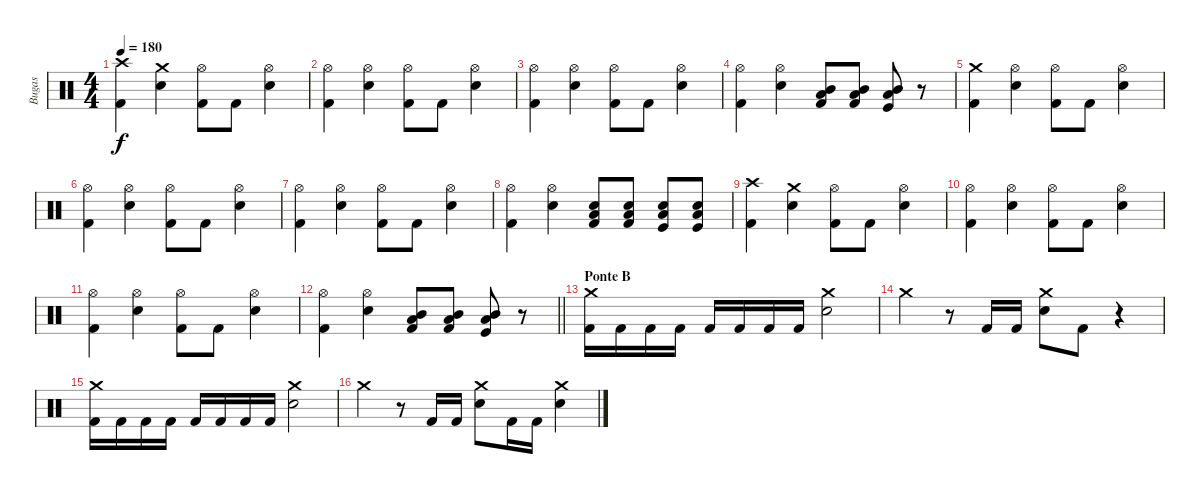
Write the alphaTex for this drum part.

\track ("Bugas" "Bugas") {instrument percussion}
\staff {score}
\articulation defaults
\ts (4 4)
\tempo 180
\clef neutral
\ks c
("Crash high (hit)" "Kick (hit) 2").4{dy f} ("Crash medium (hit)" "Electric Snare (hit)").4 ("Hi-Hat (open)" "Kick (hit) 2").8 "Kick (hit) 2".8 ("Hi-Hat (open)" "Electric Snare (hit)").4 |
("Hi-Hat (open)" "Kick (hit) 2").4 ("Hi-Hat (open)" "Electric Snare (hit)").4 ("Hi-Hat (open)" "Kick (hit) 2").8 "Kick (hit) 2".8 ("Hi-Hat (open)" "Electric Snare (hit)").4 |
("Hi-Hat (open)" "Kick (hit) 2").4 ("Hi-Hat (open)" "Electric Snare (hit)").4 ("Hi-Hat (open)" "Kick (hit) 2").8 "Kick (hit) 2".8 ("Hi-Hat (open)" "Electric Snare (hit)").4 |
("Hi-Hat (open)" "Kick (hit) 2").4 ("Hi-Hat (open)" "Electric Snare (hit)").4 ("Mid Tom (hit)" "Low Tom (hit)" "Kick (hit) 2").8 ("Mid Tom (hit)" "Low Tom (hit)" "Kick (hit) 2").8 ("Mid Tom (hit)" "Low Tom (hit)" "Kick (hit)").8 r.8 |
("Crash medium (hit)" "Kick (hit) 2").4 ("Hi-Hat (open)" "Electric Snare (hit)").4 ("Hi-Hat (open)" "Kick (hit) 2").8 "Kick (hit) 2".8 ("Hi-Hat (open)" "Electric Snare (hit)").4 |
("Hi-Hat (open)" "Kick (hit) 2").4 ("Hi-Hat (open)" "Electric Snare (hit)").4 ("Hi-Hat (open)" "Kick (hit) 2").8 "Kick (hit) 2".8 ("Hi-Hat (open)" "Electric Snare (hit)").4 |
("Hi-Hat (open)" "Kick (hit) 2").4 ("Hi-Hat (open)" "Electric Snare (hit)").4 ("Hi-Hat (open)" "Kick (hit) 2").8 "Kick (hit) 2".8 ("Hi-Hat (open)" "Electric Snare (hit)").4 |
("Hi-Hat (open)" "Kick (hit) 2").4 ("Hi-Hat (open)" "Electric Snare (hit)").4 ("Electric Snare (hit)" "Low Tom (hit)" "Kick (hit) 2").8 ("Electric Snare (hit)" "Low Tom (hit)" "Kick (hit) 2").8 ("Electric Snare (hit)" "Low Tom (hit)" "Kick (hit)").8 ("Electric Snare (hit)" "Low Tom (hit)" "Kick (hit)").8 |
("Crash high (hit)" "Kick (hit) 2").4 ("Crash medium (hit)" "Electric Snare (hit)").4 ("Hi-Hat (open)" "Kick (hit) 2").8 "Kick (hit) 2".8 ("Hi-Hat (open)" "Electric Snare (hit)").4 |
("Hi-Hat (open)" "Kick (hit) 2").4 ("Hi-Hat (open)" "Electric Snare (hit)").4 ("Hi-Hat (open)" "Kick (hit) 2").8 "Kick (hit) 2".8 ("Hi-Hat (open)" "Electric Snare (hit)").4 |
("Hi-Hat (open)" "Kick (hit) 2").4 ("Hi-Hat (open)" "Electric Snare (hit)").4 ("Hi-Hat (open)" "Kick (hit) 2").8 "Kick (hit) 2".8 ("Hi-Hat (open)" "Electric Snare (hit)").4 |
\barLineRight lightlight
("Hi-Hat (open)" "Kick (hit) 2").4 ("Hi-Hat (open)" "Electric Snare (hit)").4 ("Mid Tom (hit)" "Low Tom (hit)" "Kick (hit) 2").8 ("Mid Tom (hit)" "Low Tom (hit)" "Kick (hit) 2").8 ("Mid Tom (hit)" "Low Tom (hit)" "Kick (hit)").8 r.8 |
\section ("" "Ponte B")
("Crash medium (hit)" "Kick (hit) 2").16 "Kick (hit) 2".16 "Kick (hit) 2".16 "Kick (hit) 2".16 "Kick (hit) 2".16 "Kick (hit) 2".16 "Kick (hit) 2".16 "Kick (hit) 2".16 ("Crash medium (hit)" "Electric Snare (hit)").2 |
"Crash medium (hit)".4 r.8 "Kick (hit) 2".16 "Kick (hit) 2".16 ("Crash medium (hit)" "Electric Snare (hit)").8 "Kick (hit) 2".8 r.4 |
("Crash medium (hit)" "Kick (hit) 2").16 "Kick (hit) 2".16 "Kick (hit) 2".16 "Kick (hit) 2".16 "Kick (hit) 2".16 "Kick (hit) 2".16 "Kick (hit) 2".16 "Kick (hit) 2".16 ("Crash medium (hit)" "Electric Snare (hit)").2 |
"Crash medium (hit)".4 r.8 "Kick (hit) 2".16 "Kick (hit) 2".16 ("Crash medium (hit)" "Electric Snare (hit)").8 "Kick (hit) 2".16 "Kick (hit) 2".16 ("Crash medium (hit)" "Electric Snare (hit)").4
